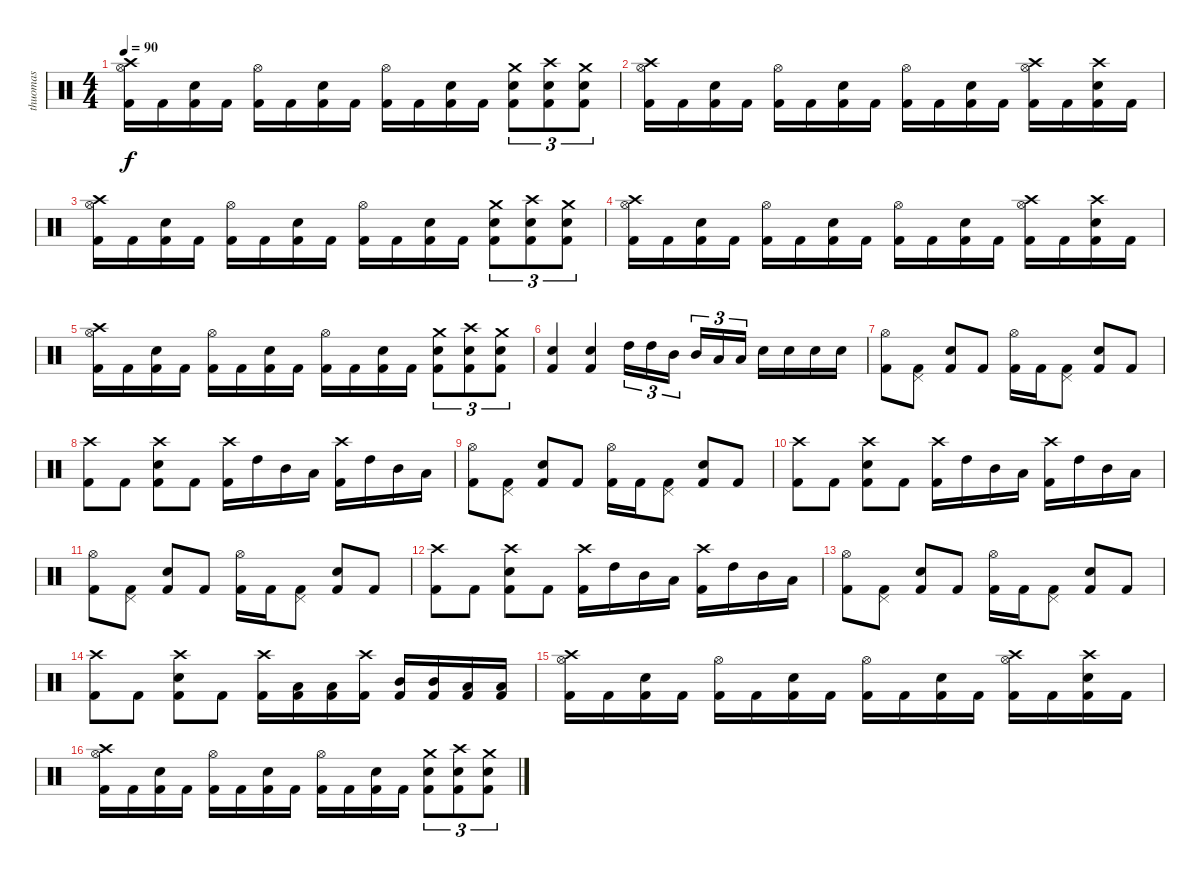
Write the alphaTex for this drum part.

\track ("thuomas" "thuomas") {instrument percussion}
\staff {score}
\articulation defaults
\ts (4 4)
\tempo 90
\clef neutral
\ks c
("Crash high (hit)" "Hi-Hat (open)" "Kick (hit) 2").16{dy f} "Kick (hit) 2".16 ("Snare (hit) 2" "Kick (hit) 2").16 "Kick (hit) 2".16 ("Hi-Hat (open)" "Kick (hit) 2").16 "Kick (hit) 2".16 ("Snare (hit) 2" "Kick (hit) 2").16 "Kick (hit) 2".16 ("Hi-Hat (open)" "Kick (hit) 2").16 "Kick (hit) 2".16 ("Snare (hit) 2" "Kick (hit) 2").16 "Kick (hit) 2".16 ("Crash medium (hit)" "Snare (hit) 2" "Kick (hit) 2").8{tu (3 2)} ("Crash high (hit)" "Snare (hit) 2" "Kick (hit) 2").8{tu (3 2)} ("Crash medium (hit)" "Snare (hit) 2" "Kick (hit) 2").8{tu (3 2)} |
("Crash high (hit)" "Hi-Hat (open)" "Kick (hit) 2").16 "Kick (hit) 2".16 ("Snare (hit) 2" "Kick (hit) 2").16 "Kick (hit) 2".16 ("Hi-Hat (open)" "Kick (hit) 2").16 "Kick (hit) 2".16 ("Snare (hit) 2" "Kick (hit) 2").16 "Kick (hit) 2".16 ("Hi-Hat (open)" "Kick (hit) 2").16 "Kick (hit) 2".16 ("Snare (hit) 2" "Kick (hit) 2").16 "Kick (hit) 2".16 ("Crash high (hit)" "Hi-Hat (open)" "Kick (hit) 2").16 "Kick (hit) 2".16 ("Crash high (hit)" "Snare (hit) 2" "Kick (hit) 2").16 "Kick (hit) 2".16 |
("Crash high (hit)" "Hi-Hat (open)" "Kick (hit) 2").16 "Kick (hit) 2".16 ("Snare (hit) 2" "Kick (hit) 2").16 "Kick (hit) 2".16 ("Hi-Hat (open)" "Kick (hit) 2").16 "Kick (hit) 2".16 ("Snare (hit) 2" "Kick (hit) 2").16 "Kick (hit) 2".16 ("Hi-Hat (open)" "Kick (hit) 2").16 "Kick (hit) 2".16 ("Snare (hit) 2" "Kick (hit) 2").16 "Kick (hit) 2".16 ("Crash medium (hit)" "Snare (hit) 2" "Kick (hit) 2").8{tu (3 2)} ("Crash high (hit)" "Snare (hit) 2" "Kick (hit) 2").8{tu (3 2)} ("Crash medium (hit)" "Snare (hit) 2" "Kick (hit) 2").8{tu (3 2)} |
("Crash high (hit)" "Hi-Hat (open)" "Kick (hit) 2").16 "Kick (hit) 2".16 ("Snare (hit) 2" "Kick (hit) 2").16 "Kick (hit) 2".16 ("Hi-Hat (open)" "Kick (hit) 2").16 "Kick (hit) 2".16 ("Snare (hit) 2" "Kick (hit) 2").16 "Kick (hit) 2".16 ("Hi-Hat (open)" "Kick (hit) 2").16 "Kick (hit) 2".16 ("Snare (hit) 2" "Kick (hit) 2").16 "Kick (hit) 2".16 ("Crash high (hit)" "Hi-Hat (open)" "Kick (hit) 2").16 "Kick (hit) 2".16 ("Crash high (hit)" "Snare (hit) 2" "Kick (hit) 2").16 "Kick (hit) 2".16 |
("Crash high (hit)" "Hi-Hat (open)" "Kick (hit) 2").16 "Kick (hit) 2".16 ("Snare (hit) 2" "Kick (hit) 2").16 "Kick (hit) 2".16 ("Hi-Hat (open)" "Kick (hit) 2").16 "Kick (hit) 2".16 ("Snare (hit) 2" "Kick (hit) 2").16 "Kick (hit) 2".16 ("Hi-Hat (open)" "Kick (hit) 2").16 "Kick (hit) 2".16 ("Snare (hit) 2" "Kick (hit) 2").16 "Kick (hit) 2".16 ("Crash medium (hit)" "Snare (hit) 2" "Kick (hit) 2").8{tu (3 2)} ("Crash high (hit)" "Snare (hit) 2" "Kick (hit) 2").8{tu (3 2)} ("Crash medium (hit)" "Snare (hit) 2" "Kick (hit) 2").8{tu (3 2)} |
("Snare (hit) 2" "Kick (hit) 2").4 ("Snare (hit) 2" "Kick (hit) 2").4 "High Tom (hit)".16{tu (3 2)} "High Tom (hit)".16{tu (3 2)} "Mid Tom (hit)".16{tu (3 2)} "Mid Tom (hit)".16{tu (3 2)} "Low Tom (hit)".16{tu (3 2)} "Low Tom (hit)".16{tu (3 2)} "Snare (hit) 2".16 "Snare (hit) 2".16 "Snare (hit) 2".16 "Snare (hit) 2".16 |
("Hi-Hat (open)" "Kick (hit) 2").8 ("Pedal Hi-Hat (hit)" "Kick (hit) 2").8 ("Snare (hit) 2" "Kick (hit) 2").8 "Kick (hit) 2".8 ("Hi-Hat (open)" "Kick (hit) 2").16 "Kick (hit) 2".16 ("Pedal Hi-Hat (hit)" "Kick (hit) 2").8 ("Snare (hit) 2" "Kick (hit) 2").8 "Kick (hit) 2".8 |
("Crash high (hit)" "Kick (hit) 2").8 "Kick (hit) 2".8 ("Crash high (hit)" "Snare (hit) 2" "Kick (hit) 2").8 "Kick (hit) 2".8 ("Crash high (hit)" "Kick (hit) 2").16 "High Tom (hit)".16 "Mid Tom (hit)".16 "Low Tom (hit)".16 ("Crash high (hit)" "Kick (hit) 2").16 "High Tom (hit)".16 "Mid Tom (hit)".16 "Low Tom (hit)".16 |
("Hi-Hat (open)" "Kick (hit) 2").8 ("Pedal Hi-Hat (hit)" "Kick (hit) 2").8 ("Snare (hit) 2" "Kick (hit) 2").8 "Kick (hit) 2".8 ("Hi-Hat (open)" "Kick (hit) 2").16 "Kick (hit) 2".16 ("Pedal Hi-Hat (hit)" "Kick (hit) 2").8 ("Snare (hit) 2" "Kick (hit) 2").8 "Kick (hit) 2".8 |
("Crash high (hit)" "Kick (hit) 2").8 "Kick (hit) 2".8 ("Crash high (hit)" "Snare (hit) 2" "Kick (hit) 2").8 "Kick (hit) 2".8 ("Crash high (hit)" "Kick (hit) 2").16 "High Tom (hit)".16 "Mid Tom (hit)".16 "Low Tom (hit)".16 ("Crash high (hit)" "Kick (hit) 2").16 "High Tom (hit)".16 "Mid Tom (hit)".16 "Low Tom (hit)".16 |
("Hi-Hat (open)" "Kick (hit) 2").8 ("Pedal Hi-Hat (hit)" "Kick (hit) 2").8 ("Snare (hit) 2" "Kick (hit) 2").8 "Kick (hit) 2".8 ("Hi-Hat (open)" "Kick (hit) 2").16 "Kick (hit) 2".16 ("Pedal Hi-Hat (hit)" "Kick (hit) 2").8 ("Snare (hit) 2" "Kick (hit) 2").8 "Kick (hit) 2".8 |
("Crash high (hit)" "Kick (hit) 2").8 "Kick (hit) 2".8 ("Crash high (hit)" "Snare (hit) 2" "Kick (hit) 2").8 "Kick (hit) 2".8 ("Crash high (hit)" "Kick (hit) 2").16 "High Tom (hit)".16 "Mid Tom (hit)".16 "Low Tom (hit)".16 ("Crash high (hit)" "Kick (hit) 2").16 "High Tom (hit)".16 "Mid Tom (hit)".16 "Low Tom (hit)".16 |
("Hi-Hat (open)" "Kick (hit) 2").8 ("Pedal Hi-Hat (hit)" "Kick (hit) 2").8 ("Snare (hit) 2" "Kick (hit) 2").8 "Kick (hit) 2".8 ("Hi-Hat (open)" "Kick (hit) 2").16 "Kick (hit) 2".16 ("Pedal Hi-Hat (hit)" "Kick (hit) 2").8 ("Snare (hit) 2" "Kick (hit) 2").8 "Kick (hit) 2".8 |
("Crash high (hit)" "Kick (hit) 2").8 "Kick (hit) 2".8 ("Crash high (hit)" "Snare (hit) 2" "Kick (hit) 2").8 "Kick (hit) 2".8 ("Crash high (hit)" "Kick (hit) 2").16 ("Low Tom (hit)" "Kick (hit) 2").16 ("Low Tom (hit)" "Kick (hit) 2").16 ("Crash high (hit)" "Kick (hit) 2").16 ("Mid Tom (hit)" "Kick (hit) 2").16 ("Mid Tom (hit)" "Kick (hit) 2").16 ("Low Tom (hit)" "Kick (hit) 2").16 ("Low Tom (hit)" "Kick (hit) 2").16 |
("Crash high (hit)" "Hi-Hat (open)" "Kick (hit) 2").16 "Kick (hit) 2".16 ("Snare (hit) 2" "Kick (hit) 2").16 "Kick (hit) 2".16 ("Hi-Hat (open)" "Kick (hit) 2").16 "Kick (hit) 2".16 ("Snare (hit) 2" "Kick (hit) 2").16 "Kick (hit) 2".16 ("Hi-Hat (open)" "Kick (hit) 2").16 "Kick (hit) 2".16 ("Snare (hit) 2" "Kick (hit) 2").16 "Kick (hit) 2".16 ("Crash high (hit)" "Hi-Hat (open)" "Kick (hit) 2").16 "Kick (hit) 2".16 ("Crash high (hit)" "Snare (hit) 2" "Kick (hit) 2").16 "Kick (hit) 2".16 |
("Crash high (hit)" "Hi-Hat (open)" "Kick (hit) 2").16 "Kick (hit) 2".16 ("Snare (hit) 2" "Kick (hit) 2").16 "Kick (hit) 2".16 ("Hi-Hat (open)" "Kick (hit) 2").16 "Kick (hit) 2".16 ("Snare (hit) 2" "Kick (hit) 2").16 "Kick (hit) 2".16 ("Hi-Hat (open)" "Kick (hit) 2").16 "Kick (hit) 2".16 ("Snare (hit) 2" "Kick (hit) 2").16 "Kick (hit) 2".16 ("Crash medium (hit)" "Snare (hit) 2" "Kick (hit) 2").8{tu (3 2)} ("Crash high (hit)" "Snare (hit) 2" "Kick (hit) 2").8{tu (3 2)} ("Crash medium (hit)" "Snare (hit) 2" "Kick (hit) 2").8{tu (3 2)}
